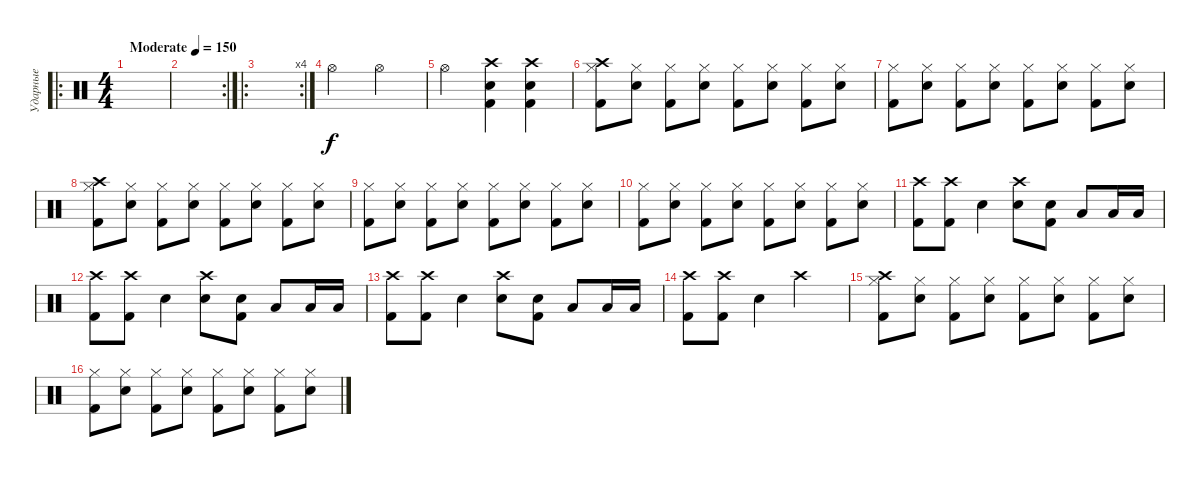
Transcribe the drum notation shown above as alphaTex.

\track ("Ударные" "Ударные") {instrument percussion}
\staff {score}
\articulation defaults
\ro
\ts (4 4)
\tempo (150 "Moderate")
\clef neutral
\ks c
|
\rc 2
|
\ro
\rc 4
|
"Hi-Hat (open)".2 "Hi-Hat (open)".2 |
"Hi-Hat (open)".2 ("Crash high (hit)" "Kick (hit) 2" "Snare (hit) 2").4 ("Crash high (hit)" "Kick (hit) 2" "Snare (hit) 2").4 |
("Kick (hit) 2" "Hi-Hat (closed)" "Crash high (hit)").8 ("Snare (hit) 2" "Hi-Hat (closed)").8 ("Kick (hit) 2" "Hi-Hat (closed)").8 ("Snare (hit) 2" "Hi-Hat (closed)").8 ("Kick (hit) 2" "Hi-Hat (closed)").8 ("Snare (hit) 2" "Hi-Hat (closed)").8 ("Kick (hit) 2" "Hi-Hat (closed)").8 ("Snare (hit) 2" "Hi-Hat (closed)").8 |
("Kick (hit) 2" "Hi-Hat (closed)").8 ("Snare (hit) 2" "Hi-Hat (closed)").8 ("Kick (hit) 2" "Hi-Hat (closed)").8 ("Snare (hit) 2" "Hi-Hat (closed)").8 ("Kick (hit) 2" "Hi-Hat (closed)").8 ("Snare (hit) 2" "Hi-Hat (closed)").8 ("Kick (hit) 2" "Hi-Hat (closed)").8 ("Snare (hit) 2" "Hi-Hat (closed)").8 |
("Kick (hit) 2" "Hi-Hat (closed)" "Crash high (hit)").8 ("Snare (hit) 2" "Hi-Hat (closed)").8 ("Kick (hit) 2" "Hi-Hat (closed)").8 ("Snare (hit) 2" "Hi-Hat (closed)").8 ("Kick (hit) 2" "Hi-Hat (closed)").8 ("Snare (hit) 2" "Hi-Hat (closed)").8 ("Kick (hit) 2" "Hi-Hat (closed)").8 ("Snare (hit) 2" "Hi-Hat (closed)").8 |
("Kick (hit) 2" "Hi-Hat (closed)").8 ("Snare (hit) 2" "Hi-Hat (closed)").8 ("Kick (hit) 2" "Hi-Hat (closed)").8 ("Snare (hit) 2" "Hi-Hat (closed)").8 ("Kick (hit) 2" "Hi-Hat (closed)").8 ("Snare (hit) 2" "Hi-Hat (closed)").8 ("Kick (hit) 2" "Hi-Hat (closed)").8 ("Snare (hit) 2" "Hi-Hat (closed)").8 |
("Kick (hit) 2" "Hi-Hat (closed)").8 ("Snare (hit) 2" "Hi-Hat (closed)").8 ("Kick (hit) 2" "Hi-Hat (closed)").8 ("Snare (hit) 2" "Hi-Hat (closed)").8 ("Kick (hit) 2" "Hi-Hat (closed)").8 ("Snare (hit) 2" "Hi-Hat (closed)").8 ("Kick (hit) 2" "Hi-Hat (closed)").8 ("Snare (hit) 2" "Hi-Hat (closed)").8 |
("Kick (hit) 2" "Crash high (hit)").8 ("Kick (hit) 2" "Crash high (hit)").8 "Snare (hit) 2".4 ("Snare (hit) 2" "Crash high (hit)").8 ("Snare (hit) 2" "Kick (hit) 2").8 "Low Tom (hit)".8 "Low Tom (hit)".16 "Low Tom (hit)".16 |
("Kick (hit) 2" "Crash high (hit)").8 ("Kick (hit) 2" "Crash high (hit)").8 "Snare (hit) 2".4 ("Snare (hit) 2" "Crash high (hit)").8 ("Snare (hit) 2" "Kick (hit) 2").8 "Low Tom (hit)".8 "Low Tom (hit)".16 "Low Tom (hit)".16 |
("Kick (hit) 2" "Crash high (hit)").8 ("Kick (hit) 2" "Crash high (hit)").8 "Snare (hit) 2".4 ("Snare (hit) 2" "Crash high (hit)").8 ("Snare (hit) 2" "Kick (hit) 2").8 "Low Tom (hit)".8 "Low Tom (hit)".16 "Low Tom (hit)".16 |
("Kick (hit) 2" "Crash high (hit)").8 ("Kick (hit) 2" "Crash high (hit)").8 "Snare (hit) 2".4 "Crash high (hit)".2 |
("Kick (hit) 2" "Hi-Hat (closed)" "Crash high (hit)").8 ("Snare (hit) 2" "Hi-Hat (closed)").8 ("Kick (hit) 2" "Hi-Hat (closed)").8 ("Snare (hit) 2" "Hi-Hat (closed)").8 ("Kick (hit) 2" "Hi-Hat (closed)").8 ("Snare (hit) 2" "Hi-Hat (closed)").8 ("Kick (hit) 2" "Hi-Hat (closed)").8 ("Snare (hit) 2" "Hi-Hat (closed)").8 |
("Kick (hit) 2" "Hi-Hat (closed)").8 ("Snare (hit) 2" "Hi-Hat (closed)").8 ("Kick (hit) 2" "Hi-Hat (closed)").8 ("Snare (hit) 2" "Hi-Hat (closed)").8 ("Kick (hit) 2" "Hi-Hat (closed)").8 ("Snare (hit) 2" "Hi-Hat (closed)").8 ("Kick (hit) 2" "Hi-Hat (closed)").8 ("Snare (hit) 2" "Hi-Hat (closed)").8
